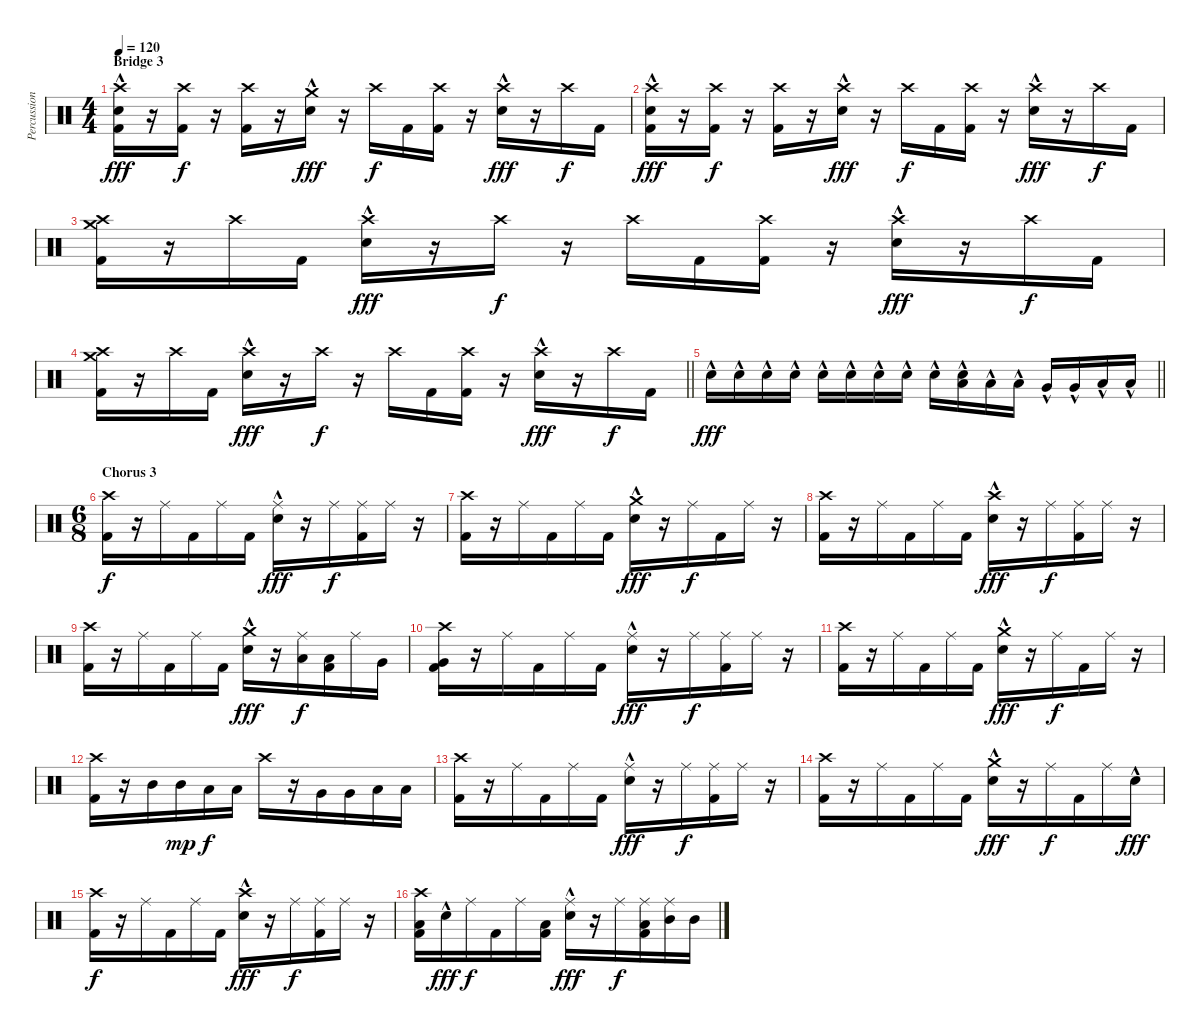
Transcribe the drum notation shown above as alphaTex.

\track ("Percussion" "Percussion") {instrument percussion}
\staff {score}
\articulation defaults
\ts (4 4)
\section ("" "Bridge 3")
\tempo 120
\clef neutral
\ks c
("Kick (hit) 2" "Snare (hit) 2"{hac} "Crash high (hit)").16{dy fff} r.16 ("Kick (hit) 2" "Crash high (hit)").16{dy f} r.16 ("Kick (hit) 2" "Crash high (hit)").16 r.16 ("Snare (hit) 2"{hac} "Crash medium (hit)").16{dy fff} r.16 "Crash high (hit)".16{dy f} "Kick (hit) 2".16 ("Kick (hit) 2" "Crash high (hit)").16 r.16 ("Snare (hit) 2"{hac} "Crash high (hit)").16{dy fff} r.16 "Crash high (hit)".16{dy f} "Kick (hit) 2".16 |
("Kick (hit) 2" "Snare (hit) 2"{hac} "Crash high (hit)").16{dy fff} r.16 ("Kick (hit) 2" "Crash high (hit)").16{dy f} r.16 ("Kick (hit) 2" "Crash high (hit)").16 r.16 ("Snare (hit) 2"{hac} "Crash high (hit)").16{dy fff} r.16 "Crash high (hit)".16{dy f} "Kick (hit) 2".16 ("Kick (hit) 2" "Crash high (hit)").16 r.16 ("Snare (hit) 2"{hac} "Crash high (hit)").16{dy fff} r.16 "Crash high (hit)".16{dy f} "Kick (hit) 2".16 |
("Kick (hit) 2" "Crash medium (hit)" "Crash high (hit)").16 r.16 "Crash high (hit)".16 "Kick (hit) 2".16 ("Snare (hit) 2"{hac} "Crash high (hit)").16{dy fff} r.16 "Crash high (hit)".16{dy f} r.16 "Crash high (hit)".16 "Kick (hit) 2".16 ("Kick (hit) 2" "Crash high (hit)").16 r.16 ("Snare (hit) 2"{hac} "Crash high (hit)").16{dy fff} r.16 "Crash high (hit)".16{dy f} "Kick (hit) 2".16 |
\barLineRight lightlight
("Kick (hit) 2" "Crash medium (hit)" "Crash high (hit)").16 r.16 "Crash high (hit)".16 "Kick (hit) 2".16 ("Snare (hit) 2"{hac} "Crash high (hit)").16{dy fff} r.16 "Crash high (hit)".16{dy f} r.16 "Crash high (hit)".16 "Kick (hit) 2".16 ("Kick (hit) 2" "Crash high (hit)").16 r.16 ("Snare (hit) 2"{hac} "Crash high (hit)").16{dy fff} r.16 "Crash high (hit)".16{dy f} "Kick (hit) 2".16 |
\barLineRight lightlight "Snare (hit) 2"{hac}.16{dy fff} "Snare (hit) 2"{hac}.16 "Snare (hit) 2"{hac}.16 "Snare (hit) 2"{hac}.16 "Snare (hit) 2"{hac}.16 "Snare (hit) 2"{hac}.16 "Snare (hit) 2"{hac}.16 "Snare (hit) 2"{hac}.16 "Snare (hit) 2"{hac}.16
("Snare (hit) 2"{hac} "Low Tom (hit)"{hac}).16 "Low Tom (hit)"{hac}.16 "Low Tom (hit)"{hac}.16 "Very Low Tom (hit)"{hac}.16 "Very Low Tom (hit)"{hac}.16 "Low Floor Tom (hit)"{hac}.16 "Low Floor Tom (hit)"{hac}.16 |
\ts (6 8)
\section ("" "Chorus 3")
("Kick (hit) 2" "Crash high (hit)").16{dy f} r.16 "Ride (middle)".16 "Kick (hit) 2".16 "Ride (middle)".16 "Kick (hit) 2".16 ("Snare (hit) 2"{hac} "Ride (middle)").16{dy fff} r.16 "Ride (middle)".16{dy f} ("Kick (hit) 2" "Ride (middle)").16 "Ride (middle)".16 r.16 |
("Kick (hit) 2" "Crash high (hit)").16 r.16 "Ride (middle)".16 "Kick (hit) 2".16 "Ride (middle)".16 "Kick (hit) 2".16 ("Snare (hit) 2"{hac} "Crash medium (hit)").16{dy fff} r.16 "Ride (middle)".16{dy f} "Kick (hit) 2".16 "Ride (middle)".16 r.16 |
("Kick (hit) 2" "Crash high (hit)").16 r.16 "Ride (middle)".16 "Kick (hit) 2".16 "Ride (middle)".16 "Kick (hit) 2".16 ("Snare (hit) 2"{hac} "Crash high (hit)").16{dy fff} r.16 "Ride (middle)".16{dy f} ("Kick (hit) 2" "Ride (middle)").16 "Ride (middle)".16 r.16 |
("Kick (hit) 2" "Crash high (hit)").16 r.16 "Ride (middle)".16 "Kick (hit) 2".16 "Ride (middle)".16 "Kick (hit) 2".16 ("Snare (hit) 2"{hac} "Crash medium (hit)").16{dy fff} r.16 ("Low Tom (hit)" "Ride (middle)").16{dy f} ("Kick (hit) 2" "Low Tom (hit)").16 "Ride (middle)".16 "Very Low Tom (hit)".16 |
("Kick (hit) 2" "Very Low Tom (hit)" "Crash high (hit)").16 r.16 "Ride (middle)".16 "Kick (hit) 2".16 "Ride (middle)".16 "Kick (hit) 2".16 ("Snare (hit) 2"{hac} "Ride (middle)").16{dy fff} r.16 "Ride (middle)".16{dy f} ("Kick (hit) 2" "Ride (middle)").16 "Ride (middle)".16 r.16 |
("Kick (hit) 2" "Crash high (hit)").16 r.16 "Ride (middle)".16 "Kick (hit) 2".16 "Ride (middle)".16 "Kick (hit) 2".16 ("Snare (hit) 2"{hac} "Crash medium (hit)").16{dy fff} r.16 "Ride (middle)".16{dy f} "Kick (hit) 2".16 "Ride (middle)".16 r.16 |
("Kick (hit) 2" "Crash high (hit)").16 r.16 "Mid Tom (hit)".16 "Mid Tom (hit)".16{dy mp} "Low Tom (hit)".16{dy f} "Low Tom (hit)".16 "Crash high (hit)".16 r.16 "Very Low Tom (hit)".16 "Very Low Tom (hit)".16 "Low Floor Tom (hit)".16 "Low Floor Tom (hit)".16 |
("Kick (hit) 2" "Crash high (hit)").16 r.16 "Ride (middle)".16 "Kick (hit) 2".16 "Ride (middle)".16 "Kick (hit) 2".16 ("Snare (hit) 2"{hac} "Ride (middle)").16{dy fff} r.16 "Ride (middle)".16{dy f} ("Kick (hit) 2" "Ride (middle)").16 "Ride (middle)".16 r.16 |
("Kick (hit) 2" "Crash high (hit)").16 r.16 "Ride (middle)".16 "Kick (hit) 2".16 "Ride (middle)".16 "Kick (hit) 2".16 ("Snare (hit) 2"{hac} "Crash medium (hit)").16{dy fff} r.16 "Ride (middle)".16{dy f} "Kick (hit) 2".16 "Ride (middle)".16 "Snare (hit) 2"{hac}.16{dy fff} |
("Kick (hit) 2" "Crash high (hit)").16{dy f} r.16 "Ride (middle)".16 "Kick (hit) 2".16 "Ride (middle)".16 "Kick (hit) 2".16 ("Snare (hit) 2"{hac} "Crash high (hit)").16{dy fff} r.16 "Ride (middle)".16{dy f} ("Kick (hit) 2" "Ride (middle)").16 "Ride (middle)".16 r.16 |
("Kick (hit) 2" "Low Tom (hit)" "Crash high (hit)").16 "Snare (hit) 2"{hac}.16{dy fff} "Ride (middle)".16{dy f} "Kick (hit) 2".16 "Ride (middle)".16 ("Kick (hit) 2" "Low Tom (hit)").16 ("Snare (hit) 2"{hac} "Ride (middle)").16{dy fff} r.16 "Ride (middle)".16{dy f} ("Kick (hit) 2" "Low Tom (hit)" "Ride (middle)").16 ("Mid Tom (hit)" "Ride (middle)").16 "Mid Tom (hit)".16
